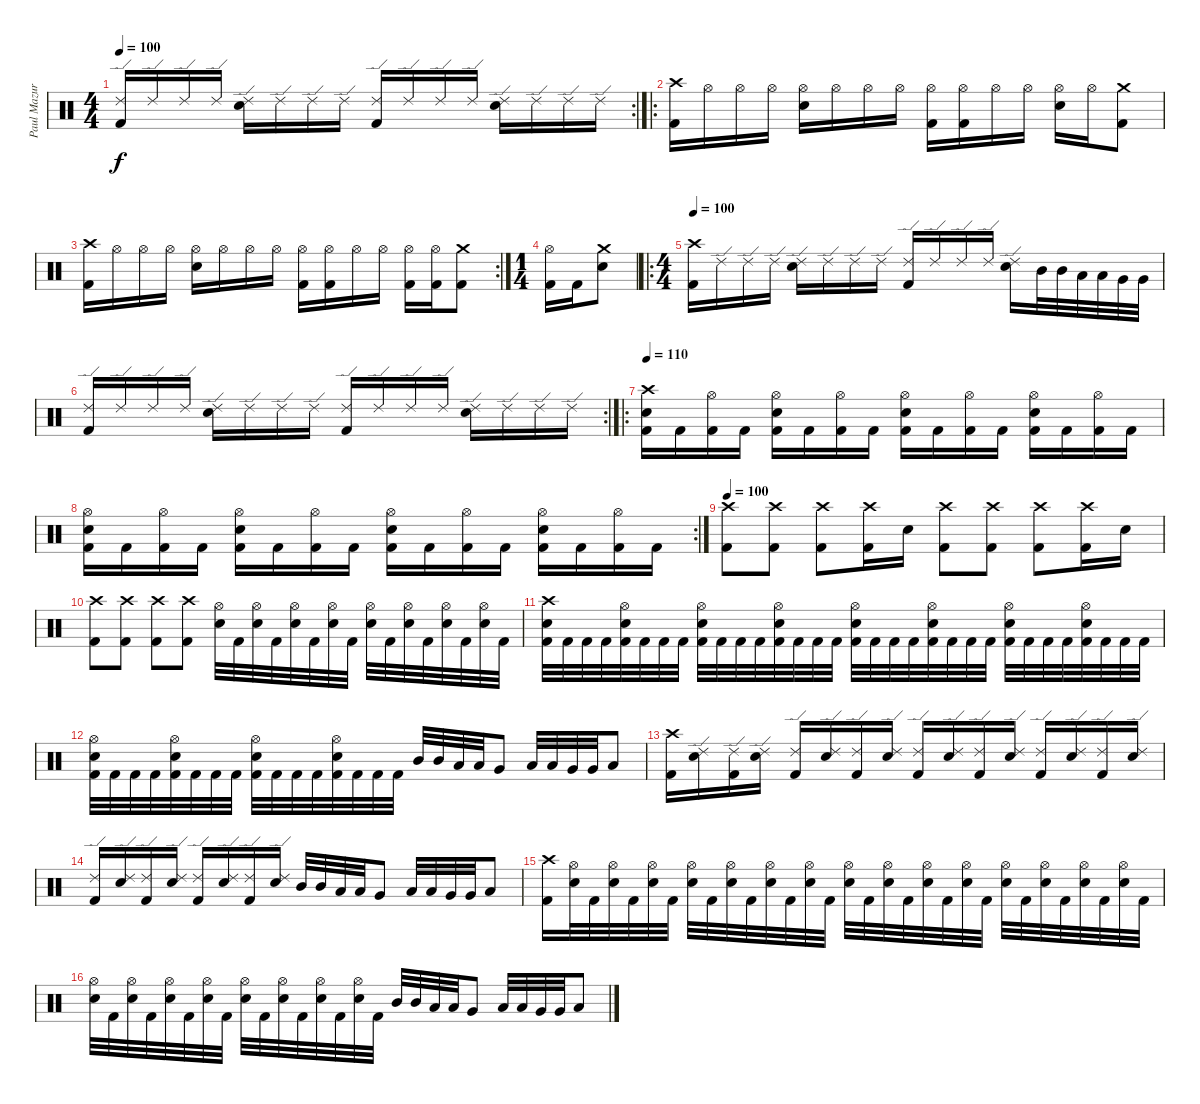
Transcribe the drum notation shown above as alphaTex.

\track ("Paul Mazurkievich" "Paul Mazur") {instrument percussion}
\staff {score}
\articulation defaults
\rc 2
\ts (4 4)
\tempo 100
\clef neutral
\ks c
("Ride (edge) 2" "Kick (hit) 2").16{dy f} "Ride (edge) 2".16 "Ride (edge) 2".16 "Ride (edge) 2".16 ("Ride (edge) 2" "Electric Snare (hit)").16 "Ride (edge) 2".16 "Ride (edge) 2".16 "Ride (edge) 2".16 ("Ride (edge) 2" "Kick (hit) 2").16 "Ride (edge) 2".16 "Ride (edge) 2".16 "Ride (edge) 2".16 ("Ride (edge) 2" "Electric Snare (hit)").16 "Ride (edge) 2".16 "Ride (edge) 2".16 "Ride (edge) 2".16 |
\ro
("Crash high (hit)" "Kick (hit) 2").16 "Hi-Hat (open)".16 "Hi-Hat (open)".16 "Hi-Hat (open)".16 ("Electric Snare (hit)" "Hi-Hat (open)").16 "Hi-Hat (open)".16 "Hi-Hat (open)".16 "Hi-Hat (open)".16 ("Kick (hit) 2" "Hi-Hat (open)").16 ("Kick (hit) 2" "Hi-Hat (open)").16 "Hi-Hat (open)".16 "Hi-Hat (open)".16 ("Electric Snare (hit)" "Hi-Hat (open)").16 "Hi-Hat (open)".16 ("Kick (hit) 2" "Crash medium (hit)").8 |
\rc 2
("Crash high (hit)" "Kick (hit) 2").16 "Hi-Hat (open)".16 "Hi-Hat (open)".16 "Hi-Hat (open)".16 ("Electric Snare (hit)" "Hi-Hat (open)").16 "Hi-Hat (open)".16 "Hi-Hat (open)".16 "Hi-Hat (open)".16 ("Kick (hit) 2" "Hi-Hat (open)").16 ("Kick (hit) 2" "Hi-Hat (open)").16 "Hi-Hat (open)".16 "Hi-Hat (open)".16 ("Kick (hit) 2" "Hi-Hat (open)").16 ("Kick (hit) 2" "Hi-Hat (open)").16 ("Kick (hit) 2" "Crash medium (hit)").8 |
\ts (1 4)
("Kick (hit) 2" "Hi-Hat (open)").16 "Kick (hit) 2".16 ("Electric Snare (hit)" "Crash medium (hit)").8 |
\ro
\ts (4 4)
\tempo 100
("Crash high (hit)" "Kick (hit) 2").16 "Ride (edge) 2".16 "Ride (edge) 2".16 "Ride (edge) 2".16 ("Ride (edge) 2" "Electric Snare (hit)").16 "Ride (edge) 2".16 "Ride (edge) 2".16 "Ride (edge) 2".16 ("Ride (edge) 2" "Kick (hit) 2").16 "Ride (edge) 2".16 "Ride (edge) 2".16 "Ride (edge) 2".16 ("Ride (edge) 2" "Electric Snare (hit)").16 "Mid Tom (hit)".32 "Mid Tom (hit)".32 "Low Tom (hit)".32 "Low Tom (hit)".32 "Very Low Tom (hit)".32 "Very Low Tom (hit)".32 |
\rc 2
("Ride (edge) 2" "Kick (hit) 2").16 "Ride (edge) 2".16 "Ride (edge) 2".16 "Ride (edge) 2".16 ("Ride (edge) 2" "Electric Snare (hit)").16 "Ride (edge) 2".16 "Ride (edge) 2".16 "Ride (edge) 2".16 ("Ride (edge) 2" "Kick (hit) 2").16 "Ride (edge) 2".16 "Ride (edge) 2".16 "Ride (edge) 2".16 ("Ride (edge) 2" "Electric Snare (hit)").16 "Ride (edge) 2".16 "Ride (edge) 2".16 "Ride (edge) 2".16 |
\ro
\tempo 110
("Kick (hit) 2" "Crash high (hit)" "Electric Snare (hit)").16 "Kick (hit) 2".16 ("Kick (hit) 2" "Hi-Hat (open)").16 "Kick (hit) 2".16 ("Kick (hit) 2" "Hi-Hat (open)" "Electric Snare (hit)").16 "Kick (hit) 2".16 ("Kick (hit) 2" "Hi-Hat (open)").16 "Kick (hit) 2".16 ("Kick (hit) 2" "Hi-Hat (open)" "Electric Snare (hit)").16 "Kick (hit) 2".16 ("Kick (hit) 2" "Hi-Hat (open)").16 "Kick (hit) 2".16 ("Kick (hit) 2" "Hi-Hat (open)" "Electric Snare (hit)").16 "Kick (hit) 2".16 ("Kick (hit) 2" "Hi-Hat (open)").16 "Kick (hit) 2".16 |
\rc 2
("Kick (hit) 2" "Hi-Hat (open)" "Electric Snare (hit)").16 "Kick (hit) 2".16 ("Kick (hit) 2" "Hi-Hat (open)").16 "Kick (hit) 2".16 ("Kick (hit) 2" "Hi-Hat (open)" "Electric Snare (hit)").16 "Kick (hit) 2".16 ("Kick (hit) 2" "Hi-Hat (open)").16 "Kick (hit) 2".16 ("Kick (hit) 2" "Hi-Hat (open)" "Electric Snare (hit)").16 "Kick (hit) 2".16 ("Kick (hit) 2" "Hi-Hat (open)").16 "Kick (hit) 2".16 ("Kick (hit) 2" "Hi-Hat (open)" "Electric Snare (hit)").16 "Kick (hit) 2".16 ("Kick (hit) 2" "Hi-Hat (open)").16 "Kick (hit) 2".16 |
\tempo 100
("Crash high (hit)" "Kick (hit) 2").8 ("Crash high (hit)" "Kick (hit) 2").8 ("Crash high (hit)" "Kick (hit) 2").8 ("Crash high (hit)" "Kick (hit) 2").16 "Electric Snare (hit)".16 ("Crash high (hit)" "Kick (hit) 2").8 ("Crash high (hit)" "Kick (hit) 2").8 ("Crash high (hit)" "Kick (hit) 2").8 ("Crash high (hit)" "Kick (hit) 2").16 "Electric Snare (hit)".16 |
("Crash high (hit)" "Kick (hit) 2").8 ("Crash high (hit)" "Kick (hit) 2").8 ("Crash high (hit)" "Kick (hit) 2").8 ("Crash high (hit)" "Kick (hit) 2").8 ("Electric Snare (hit)" "Hi-Hat (open)").32 "Kick (hit) 2".32 ("Electric Snare (hit)" "Hi-Hat (open)").32 "Kick (hit) 2".32 ("Electric Snare (hit)" "Hi-Hat (open)").32 "Kick (hit) 2".32 ("Electric Snare (hit)" "Hi-Hat (open)").32 "Kick (hit) 2".32 ("Electric Snare (hit)" "Hi-Hat (open)").32 "Kick (hit) 2".32 ("Electric Snare (hit)" "Hi-Hat (open)").32 "Kick (hit) 2".32 ("Electric Snare (hit)" "Hi-Hat (open)").32 "Kick (hit) 2".32 ("Electric Snare (hit)" "Hi-Hat (open)").32 "Kick (hit) 2".32 |
("Kick (hit) 2" "Crash high (hit)" "Electric Snare (hit)").32 "Kick (hit) 2".32 "Kick (hit) 2".32 "Kick (hit) 2".32 ("Kick (hit) 2" "Electric Snare (hit)" "Hi-Hat (open)").32 "Kick (hit) 2".32 "Kick (hit) 2".32 "Kick (hit) 2".32 ("Kick (hit) 2" "Electric Snare (hit)" "Hi-Hat (open)").32 "Kick (hit) 2".32 "Kick (hit) 2".32 "Kick (hit) 2".32 ("Kick (hit) 2" "Electric Snare (hit)" "Hi-Hat (open)").32 "Kick (hit) 2".32 "Kick (hit) 2".32 "Kick (hit) 2".32 ("Kick (hit) 2" "Electric Snare (hit)" "Hi-Hat (open)").32 "Kick (hit) 2".32 "Kick (hit) 2".32 "Kick (hit) 2".32 ("Kick (hit) 2" "Electric Snare (hit)" "Hi-Hat (open)").32 "Kick (hit) 2".32 "Kick (hit) 2".32 "Kick (hit) 2".32 ("Kick (hit) 2" "Electric Snare (hit)" "Hi-Hat (open)").32 "Kick (hit) 2".32 "Kick (hit) 2".32 "Kick (hit) 2".32 ("Kick (hit) 2" "Electric Snare (hit)" "Hi-Hat (open)").32 "Kick (hit) 2".32 "Kick (hit) 2".32 "Kick (hit) 2".32 |
("Kick (hit) 2" "Hi-Hat (open)" "Electric Snare (hit)").32 "Kick (hit) 2".32 "Kick (hit) 2".32 "Kick (hit) 2".32 ("Kick (hit) 2" "Electric Snare (hit)" "Hi-Hat (open)").32 "Kick (hit) 2".32 "Kick (hit) 2".32 "Kick (hit) 2".32 ("Kick (hit) 2" "Electric Snare (hit)" "Hi-Hat (open)").32 "Kick (hit) 2".32 "Kick (hit) 2".32 "Kick (hit) 2".32 ("Kick (hit) 2" "Electric Snare (hit)" "Hi-Hat (open)").32 "Kick (hit) 2".32 "Kick (hit) 2".32 "Kick (hit) 2".32 "Mid Tom (hit)".32 "Mid Tom (hit)".32 "Low Tom (hit)".32 "Low Tom (hit)".32 "Very Low Tom (hit)".8 "Low Tom (hit)".32 "Low Tom (hit)".32 "Very Low Tom (hit)".32 "Very Low Tom (hit)".32 "Low Floor Tom (hit)".8 |
("Crash high (hit)" "Kick (hit) 2").16 ("Electric Snare (hit)" "Ride (edge) 2").16 ("Kick (hit) 2" "Ride (edge) 2").16 ("Electric Snare (hit)" "Ride (edge) 2").16 ("Kick (hit) 2" "Ride (edge) 2").16 ("Electric Snare (hit)" "Ride (edge) 2").16 ("Kick (hit) 2" "Ride (edge) 2").16 ("Electric Snare (hit)" "Ride (edge) 2").16 ("Ride (edge) 2" "Kick (hit) 2").16 ("Electric Snare (hit)" "Ride (edge) 2").16 ("Kick (hit) 2" "Ride (edge) 2").16 ("Electric Snare (hit)" "Ride (edge) 2").16 ("Kick (hit) 2" "Ride (edge) 2").16 ("Electric Snare (hit)" "Ride (edge) 2").16 ("Kick (hit) 2" "Ride (edge) 2").16 ("Electric Snare (hit)" "Ride (edge) 2").16 |
("Ride (edge) 2" "Kick (hit) 2").16 ("Electric Snare (hit)" "Ride (edge) 2").16 ("Kick (hit) 2" "Ride (edge) 2").16 ("Electric Snare (hit)" "Ride (edge) 2").16 ("Kick (hit) 2" "Ride (edge) 2").16 ("Electric Snare (hit)" "Ride (edge) 2").16 ("Kick (hit) 2" "Ride (edge) 2").16 ("Electric Snare (hit)" "Ride (edge) 2").16 "Mid Tom (hit)".32 "Mid Tom (hit)".32 "Low Tom (hit)".32 "Low Tom (hit)".32 "Very Low Tom (hit)".8 "Low Tom (hit)".32 "Low Tom (hit)".32 "Very Low Tom (hit)".32 "Very Low Tom (hit)".32 "Low Floor Tom (hit)".8 |
("Kick (hit) 2" "Crash high (hit)").16 ("Electric Snare (hit)" "Hi-Hat (open)").32 "Kick (hit) 2".32 ("Electric Snare (hit)" "Hi-Hat (open)").32 "Kick (hit) 2".32 ("Electric Snare (hit)" "Hi-Hat (open)").32 "Kick (hit) 2".32 ("Electric Snare (hit)" "Hi-Hat (open)").32 "Kick (hit) 2".32 ("Electric Snare (hit)" "Hi-Hat (open)").32 "Kick (hit) 2".32 ("Electric Snare (hit)" "Hi-Hat (open)").32 "Kick (hit) 2".32 ("Electric Snare (hit)" "Hi-Hat (open)").32 "Kick (hit) 2".32 ("Electric Snare (hit)" "Hi-Hat (open)").32 "Kick (hit) 2".32 ("Electric Snare (hit)" "Hi-Hat (open)").32 "Kick (hit) 2".32 ("Electric Snare (hit)" "Hi-Hat (open)").32 "Kick (hit) 2".32 ("Electric Snare (hit)" "Hi-Hat (open)").32 "Kick (hit) 2".32 ("Electric Snare (hit)" "Hi-Hat (open)").32 "Kick (hit) 2".32 ("Electric Snare (hit)" "Hi-Hat (open)").32 "Kick (hit) 2".32 ("Electric Snare (hit)" "Hi-Hat (open)").32 "Kick (hit) 2".32 ("Electric Snare (hit)" "Hi-Hat (open)").32 "Kick (hit) 2".32 |
("Electric Snare (hit)" "Hi-Hat (open)").32 "Kick (hit) 2".32 ("Electric Snare (hit)" "Hi-Hat (open)").32 "Kick (hit) 2".32 ("Electric Snare (hit)" "Hi-Hat (open)").32 "Kick (hit) 2".32 ("Electric Snare (hit)" "Hi-Hat (open)").32 "Kick (hit) 2".32 ("Electric Snare (hit)" "Hi-Hat (open)").32 "Kick (hit) 2".32 ("Electric Snare (hit)" "Hi-Hat (open)").32 "Kick (hit) 2".32 ("Electric Snare (hit)" "Hi-Hat (open)").32 "Kick (hit) 2".32 ("Electric Snare (hit)" "Hi-Hat (open)").32 "Kick (hit) 2".32 "Mid Tom (hit)".32 "Mid Tom (hit)".32 "Low Tom (hit)".32 "Low Tom (hit)".32 "Very Low Tom (hit)".8 "Low Tom (hit)".32 "Low Tom (hit)".32 "Very Low Tom (hit)".32 "Very Low Tom (hit)".32 "Low Floor Tom (hit)".8
